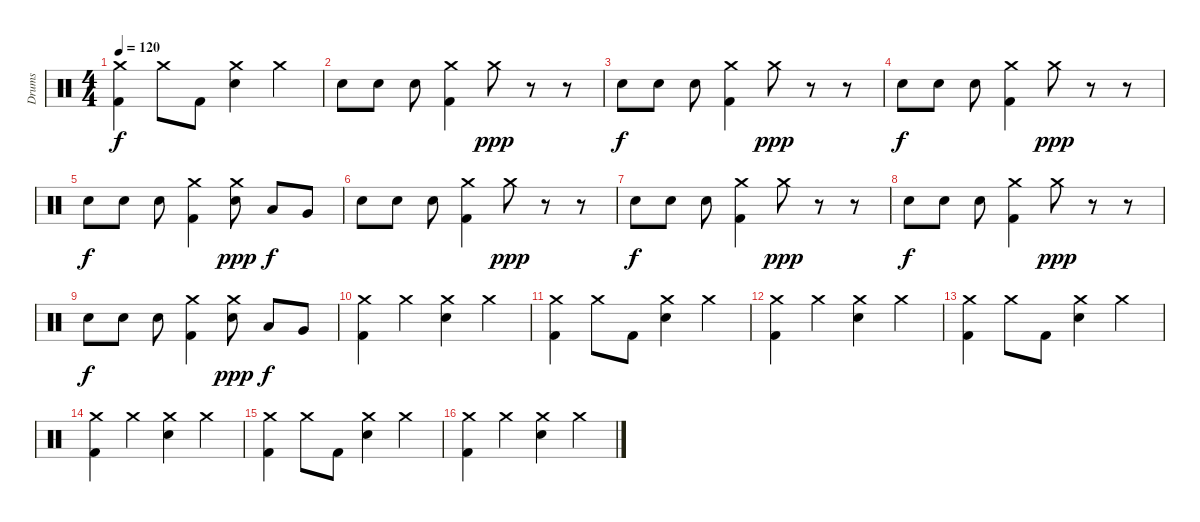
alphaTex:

\track ("Drums" "Drums") {instrument percussion}
\staff {score}
\articulation defaults
\ts (4 4)
\tempo 120
\clef neutral
\ks c
("Crash medium (hit)" "Kick (hit) 2").4{dy f} "Crash medium (hit)".8 "Kick (hit) 2".8 ("Crash medium (hit)" "Snare (hit) 2").4 "Crash medium (hit)".4 |
"Snare (hit) 2".8 "Snare (hit) 2".8 "Snare (hit) 2".8 ("Crash medium (hit)" "Kick (hit) 2").4 "Crash medium (hit)".8{dy ppp} r.8 r.8 |
"Snare (hit) 2".8{dy f} "Snare (hit) 2".8 "Snare (hit) 2".8 ("Crash medium (hit)" "Kick (hit) 2").4 "Crash medium (hit)".8{dy ppp} r.8 r.8 |
"Snare (hit) 2".8{dy f} "Snare (hit) 2".8 "Snare (hit) 2".8 ("Crash medium (hit)" "Kick (hit) 2").4 "Crash medium (hit)".8{dy ppp} r.8 r.8 |
"Snare (hit) 2".8{dy f} "Snare (hit) 2".8 "Snare (hit) 2".8 ("Crash medium (hit)" "Kick (hit) 2").4 ("Crash medium (hit)" "Snare (hit) 2").8{dy ppp} "Low Tom (hit)".8{dy f} "Very Low Tom (hit)".8 |
"Snare (hit) 2".8 "Snare (hit) 2".8 "Snare (hit) 2".8 ("Crash medium (hit)" "Kick (hit) 2").4 "Crash medium (hit)".8{dy ppp} r.8 r.8 |
"Snare (hit) 2".8{dy f} "Snare (hit) 2".8 "Snare (hit) 2".8 ("Crash medium (hit)" "Kick (hit) 2").4 "Crash medium (hit)".8{dy ppp} r.8 r.8 |
"Snare (hit) 2".8{dy f} "Snare (hit) 2".8 "Snare (hit) 2".8 ("Crash medium (hit)" "Kick (hit) 2").4 "Crash medium (hit)".8{dy ppp} r.8 r.8 |
"Snare (hit) 2".8{dy f} "Snare (hit) 2".8 "Snare (hit) 2".8 ("Crash medium (hit)" "Kick (hit) 2").4 ("Crash medium (hit)" "Snare (hit) 2").8{dy ppp} "Low Tom (hit)".8{dy f} "Very Low Tom (hit)".8 |
("Crash medium (hit)" "Kick (hit) 2").4 "Crash medium (hit)".4 ("Crash medium (hit)" "Snare (hit) 2").4 "Crash medium (hit)".4 |
("Crash medium (hit)" "Kick (hit) 2").4 "Crash medium (hit)".8 "Kick (hit) 2".8 ("Crash medium (hit)" "Snare (hit) 2").4 "Crash medium (hit)".4 |
("Crash medium (hit)" "Kick (hit) 2").4 "Crash medium (hit)".4 ("Crash medium (hit)" "Snare (hit) 2").4 "Crash medium (hit)".4 |
("Crash medium (hit)" "Kick (hit) 2").4 "Crash medium (hit)".8 "Kick (hit) 2".8 ("Crash medium (hit)" "Snare (hit) 2").4 "Crash medium (hit)".4 |
("Crash medium (hit)" "Kick (hit) 2").4 "Crash medium (hit)".4 ("Crash medium (hit)" "Snare (hit) 2").4 "Crash medium (hit)".4 |
("Crash medium (hit)" "Kick (hit) 2").4 "Crash medium (hit)".8 "Kick (hit) 2".8 ("Crash medium (hit)" "Snare (hit) 2").4 "Crash medium (hit)".4 |
("Crash medium (hit)" "Kick (hit) 2").4 "Crash medium (hit)".4 ("Crash medium (hit)" "Snare (hit) 2").4 "Crash medium (hit)".4
